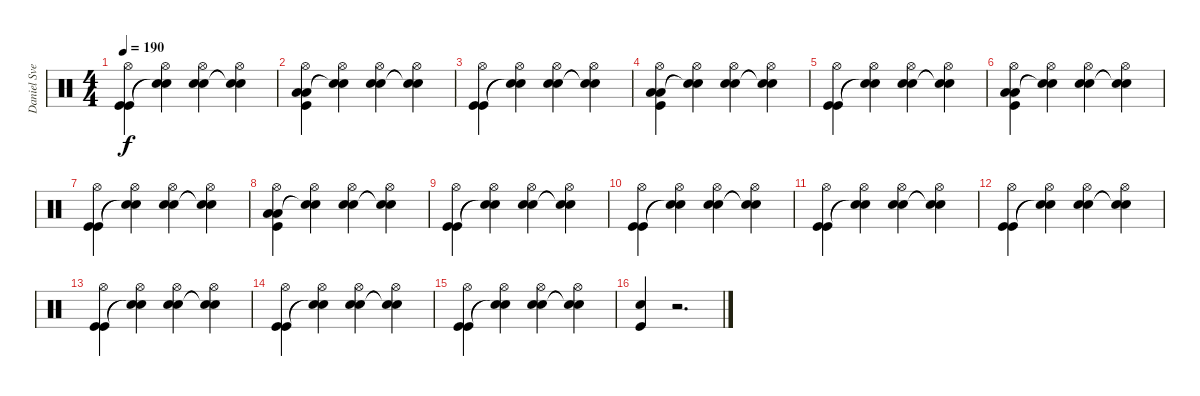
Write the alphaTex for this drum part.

\track ("Daniel Svensson" "Daniel Sve") {instrument percussion}
\staff {score}
\articulation defaults
\ts (4 4)
\tempo 190
\clef neutral
\ks c
("Hi-Hat (open)" "Kick (hit)" "Kick (hit)").4{dy f} ("Hi-Hat (open)" "Snare (hit)"{t} "Snare (hit)"{t}).4 ("Hi-Hat (open)" "Electric Snare (hit)" "Electric Snare (hit)").4 ("Hi-Hat (open)" "Snare (hit)"{t} "Snare (hit)"{t}).4 |
("Hi-Hat (open)" "Low Floor Tom (hit)" "Low Floor Tom (hit)" "Kick (hit)").4 ("Hi-Hat (open)" "Snare (hit)"{t} "Snare (hit)"{t}).4 ("Hi-Hat (open)" "Electric Snare (hit)" "Electric Snare (hit)").4 ("Hi-Hat (open)" "Snare (hit)"{t} "Snare (hit)"{t}).4 |
("Hi-Hat (open)" "Kick (hit)" "Kick (hit)").4 ("Hi-Hat (open)" "Snare (hit)"{t} "Snare (hit)"{t}).4 ("Hi-Hat (open)" "Electric Snare (hit)" "Electric Snare (hit)").4 ("Hi-Hat (open)" "Snare (hit)"{t} "Snare (hit)"{t}).4 |
("Hi-Hat (open)" "Low Floor Tom (hit)" "Low Floor Tom (hit)" "Kick (hit)").4 ("Hi-Hat (open)" "Snare (hit)"{t} "Snare (hit)"{t}).4 ("Hi-Hat (open)" "Electric Snare (hit)" "Electric Snare (hit)").4 ("Hi-Hat (open)" "Snare (hit)"{t} "Snare (hit)"{t}).4 |
("Hi-Hat (open)" "Kick (hit)" "Kick (hit)").4 ("Hi-Hat (open)" "Snare (hit)"{t} "Snare (hit)"{t}).4 ("Hi-Hat (open)" "Electric Snare (hit)" "Electric Snare (hit)").4 ("Hi-Hat (open)" "Snare (hit)"{t} "Snare (hit)"{t}).4 |
("Hi-Hat (open)" "Low Floor Tom (hit)" "Low Floor Tom (hit)" "Kick (hit)").4 ("Hi-Hat (open)" "Snare (hit)"{t} "Snare (hit)"{t}).4 ("Hi-Hat (open)" "Electric Snare (hit)" "Electric Snare (hit)").4 ("Hi-Hat (open)" "Snare (hit)"{t} "Snare (hit)"{t}).4 |
("Hi-Hat (open)" "Kick (hit)" "Kick (hit)").4 ("Hi-Hat (open)" "Snare (hit)"{t} "Snare (hit)"{t}).4 ("Hi-Hat (open)" "Electric Snare (hit)" "Electric Snare (hit)").4 ("Hi-Hat (open)" "Snare (hit)"{t} "Snare (hit)"{t}).4 |
("Hi-Hat (open)" "Low Floor Tom (hit)" "Low Floor Tom (hit)" "Kick (hit)").4 ("Hi-Hat (open)" "Snare (hit)"{t} "Snare (hit)"{t}).4 ("Hi-Hat (open)" "Electric Snare (hit)" "Electric Snare (hit)").4 ("Hi-Hat (open)" "Snare (hit)"{t} "Snare (hit)"{t}).4 |
("Hi-Hat (open)" "Kick (hit)" "Kick (hit)").4 ("Hi-Hat (open)" "Snare (hit)"{t} "Snare (hit)"{t}).4 ("Hi-Hat (open)" "Electric Snare (hit)" "Electric Snare (hit)").4 ("Hi-Hat (open)" "Snare (hit)"{t} "Snare (hit)"{t}).4 |
("Hi-Hat (open)" "Kick (hit)" "Kick (hit)").4 ("Hi-Hat (open)" "Snare (hit)"{t} "Snare (hit)"{t}).4 ("Hi-Hat (open)" "Electric Snare (hit)" "Electric Snare (hit)").4 ("Hi-Hat (open)" "Snare (hit)"{t} "Snare (hit)"{t}).4 |
("Hi-Hat (open)" "Kick (hit)" "Kick (hit)").4 ("Hi-Hat (open)" "Snare (hit)"{t} "Snare (hit)"{t}).4 ("Hi-Hat (open)" "Electric Snare (hit)" "Electric Snare (hit)").4 ("Hi-Hat (open)" "Snare (hit)"{t} "Snare (hit)"{t}).4 |
("Hi-Hat (open)" "Kick (hit)" "Kick (hit)").4 ("Hi-Hat (open)" "Snare (hit)"{t} "Snare (hit)"{t}).4 ("Hi-Hat (open)" "Electric Snare (hit)" "Electric Snare (hit)").4 ("Hi-Hat (open)" "Snare (hit)"{t} "Snare (hit)"{t}).4 |
("Hi-Hat (open)" "Kick (hit)" "Kick (hit)").4 ("Hi-Hat (open)" "Snare (hit)"{t} "Snare (hit)"{t}).4 ("Hi-Hat (open)" "Electric Snare (hit)" "Electric Snare (hit)").4 ("Hi-Hat (open)" "Snare (hit)"{t} "Snare (hit)"{t}).4 |
("Hi-Hat (open)" "Kick (hit)" "Kick (hit)").4 ("Hi-Hat (open)" "Snare (hit)"{t} "Snare (hit)"{t}).4 ("Hi-Hat (open)" "Electric Snare (hit)" "Electric Snare (hit)").4 ("Hi-Hat (open)" "Snare (hit)"{t} "Snare (hit)"{t}).4 |
("Hi-Hat (open)" "Kick (hit)" "Kick (hit)").4 ("Hi-Hat (open)" "Snare (hit)"{t} "Snare (hit)"{t}).4 ("Hi-Hat (open)" "Electric Snare (hit)" "Electric Snare (hit)").4 ("Hi-Hat (open)" "Snare (hit)"{t} "Snare (hit)"{t}).4 |
("Electric Snare (hit)" "Kick (hit)").4 r.2{d}
